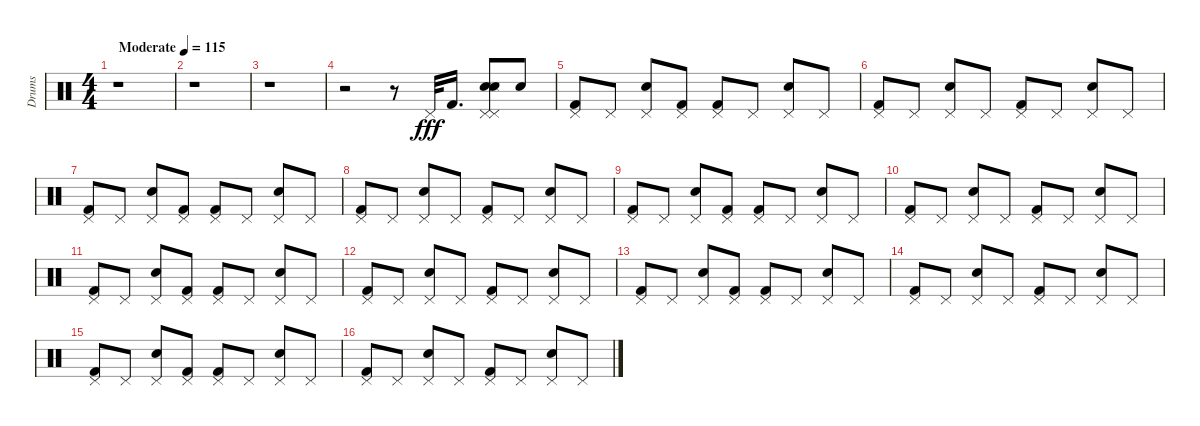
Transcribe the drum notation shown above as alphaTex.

\track ("Drums" "Drums") {instrument percussion}
\staff {score}
\articulation defaults
\ts (4 4)
\tempo (115 "Moderate")
\clef neutral
\ks c
r.1{dy fff} |
r.1 |
r.1 |
r.2 r.8 "Pedal Hi-Hat (hit)".32 "Kick (hit) 2".16{d} ("Pedal Hi-Hat (hit)" "Snare (hit) 2" "Snare (side stick) 3" "Snare (hit) 2" "Pedal Hi-Hat (hit)").8 "Snare (hit) 2".8 |
("Kick (hit) 2" "Pedal Hi-Hat (hit)").8 "Pedal Hi-Hat (hit)".8 ("Snare (hit) 2" "Pedal Hi-Hat (hit)").8 ("Pedal Hi-Hat (hit)" "Kick (hit) 2").8 ("Pedal Hi-Hat (hit)" "Kick (hit) 2").8 "Pedal Hi-Hat (hit)".8 ("Pedal Hi-Hat (hit)" "Snare (hit) 2").8 "Pedal Hi-Hat (hit)".8 |
("Kick (hit) 2" "Pedal Hi-Hat (hit)").8 "Pedal Hi-Hat (hit)".8 ("Snare (hit) 2" "Pedal Hi-Hat (hit)").8 "Pedal Hi-Hat (hit)".8 ("Pedal Hi-Hat (hit)" "Kick (hit) 2").8 "Pedal Hi-Hat (hit)".8 ("Pedal Hi-Hat (hit)" "Snare (hit) 2").8 "Pedal Hi-Hat (hit)".8 |
("Kick (hit) 2" "Pedal Hi-Hat (hit)").8 "Pedal Hi-Hat (hit)".8 ("Snare (hit) 2" "Pedal Hi-Hat (hit)").8 ("Pedal Hi-Hat (hit)" "Kick (hit) 2").8 ("Pedal Hi-Hat (hit)" "Kick (hit) 2").8 "Pedal Hi-Hat (hit)".8 ("Pedal Hi-Hat (hit)" "Snare (hit) 2").8 "Pedal Hi-Hat (hit)".8 |
("Kick (hit) 2" "Pedal Hi-Hat (hit)").8 "Pedal Hi-Hat (hit)".8 ("Snare (hit) 2" "Pedal Hi-Hat (hit)").8 "Pedal Hi-Hat (hit)".8 ("Pedal Hi-Hat (hit)" "Kick (hit) 2").8 "Pedal Hi-Hat (hit)".8 ("Pedal Hi-Hat (hit)" "Snare (hit) 2").8 "Pedal Hi-Hat (hit)".8 |
("Kick (hit) 2" "Pedal Hi-Hat (hit)").8 "Pedal Hi-Hat (hit)".8 ("Snare (hit) 2" "Pedal Hi-Hat (hit)").8 ("Pedal Hi-Hat (hit)" "Kick (hit) 2").8 ("Pedal Hi-Hat (hit)" "Kick (hit) 2").8 "Pedal Hi-Hat (hit)".8 ("Pedal Hi-Hat (hit)" "Snare (hit) 2").8 "Pedal Hi-Hat (hit)".8 |
("Kick (hit) 2" "Pedal Hi-Hat (hit)").8 "Pedal Hi-Hat (hit)".8 ("Snare (hit) 2" "Pedal Hi-Hat (hit)").8 "Pedal Hi-Hat (hit)".8 ("Pedal Hi-Hat (hit)" "Kick (hit) 2").8 "Pedal Hi-Hat (hit)".8 ("Pedal Hi-Hat (hit)" "Snare (hit) 2").8 "Pedal Hi-Hat (hit)".8 |
("Kick (hit) 2" "Pedal Hi-Hat (hit)").8 "Pedal Hi-Hat (hit)".8 ("Snare (hit) 2" "Pedal Hi-Hat (hit)").8 ("Pedal Hi-Hat (hit)" "Kick (hit) 2").8 ("Pedal Hi-Hat (hit)" "Kick (hit) 2").8 "Pedal Hi-Hat (hit)".8 ("Pedal Hi-Hat (hit)" "Snare (hit) 2").8 "Pedal Hi-Hat (hit)".8 |
("Kick (hit) 2" "Pedal Hi-Hat (hit)").8 "Pedal Hi-Hat (hit)".8 ("Snare (hit) 2" "Pedal Hi-Hat (hit)").8 "Pedal Hi-Hat (hit)".8 ("Pedal Hi-Hat (hit)" "Kick (hit) 2").8 "Pedal Hi-Hat (hit)".8 ("Pedal Hi-Hat (hit)" "Snare (hit) 2").8 "Pedal Hi-Hat (hit)".8 |
("Kick (hit) 2" "Pedal Hi-Hat (hit)").8 "Pedal Hi-Hat (hit)".8 ("Snare (hit) 2" "Pedal Hi-Hat (hit)").8 ("Pedal Hi-Hat (hit)" "Kick (hit) 2").8 ("Pedal Hi-Hat (hit)" "Kick (hit) 2").8 "Pedal Hi-Hat (hit)".8 ("Pedal Hi-Hat (hit)" "Snare (hit) 2").8 "Pedal Hi-Hat (hit)".8 |
("Kick (hit) 2" "Pedal Hi-Hat (hit)").8 "Pedal Hi-Hat (hit)".8 ("Snare (hit) 2" "Pedal Hi-Hat (hit)").8 "Pedal Hi-Hat (hit)".8 ("Pedal Hi-Hat (hit)" "Kick (hit) 2").8 "Pedal Hi-Hat (hit)".8 ("Pedal Hi-Hat (hit)" "Snare (hit) 2").8 "Pedal Hi-Hat (hit)".8 |
("Kick (hit) 2" "Pedal Hi-Hat (hit)").8 "Pedal Hi-Hat (hit)".8 ("Snare (hit) 2" "Pedal Hi-Hat (hit)").8 ("Pedal Hi-Hat (hit)" "Kick (hit) 2").8 ("Pedal Hi-Hat (hit)" "Kick (hit) 2").8 "Pedal Hi-Hat (hit)".8 ("Pedal Hi-Hat (hit)" "Snare (hit) 2").8 "Pedal Hi-Hat (hit)".8 |
("Kick (hit) 2" "Pedal Hi-Hat (hit)").8 "Pedal Hi-Hat (hit)".8 ("Snare (hit) 2" "Pedal Hi-Hat (hit)").8 "Pedal Hi-Hat (hit)".8 ("Pedal Hi-Hat (hit)" "Kick (hit) 2").8 "Pedal Hi-Hat (hit)".8 ("Pedal Hi-Hat (hit)" "Snare (hit) 2").8 "Pedal Hi-Hat (hit)".8
